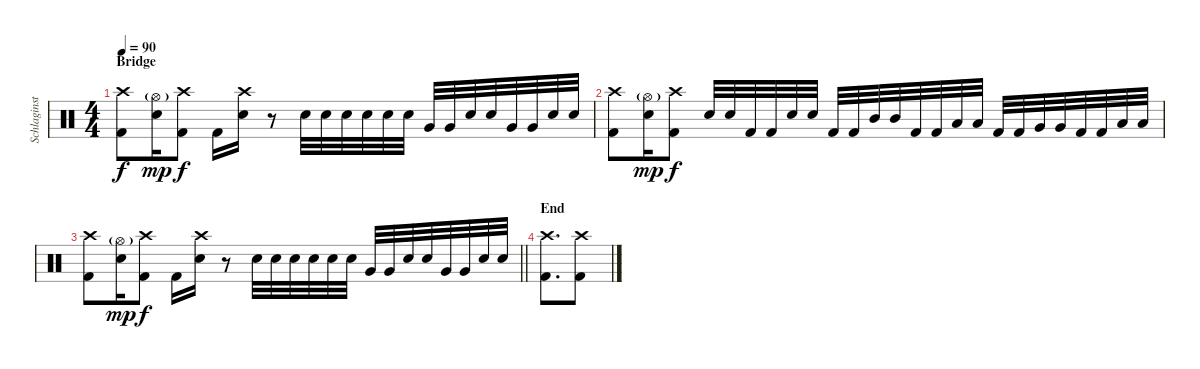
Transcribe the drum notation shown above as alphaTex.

\track ("Schlaginstrumente - Auswahl" "Schlaginst") {instrument percussion}
\staff {score}
\articulation defaults
\ts (4 4)
\section ("" "Bridge")
\tempo 90
\clef neutral
\ks c
("Crash high (hit)" "Kick (hit) 2").8{dy f} ("Hi-Hat (open)"{g} "Electric Snare (hit)").16{dy mp} ("Crash high (hit)" "Kick (hit) 2").8{dy f} "Kick (hit) 2".16 ("Crash high (hit)" "Electric Snare (hit)").16 r.8 "Electric Snare (hit)".32 "Electric Snare (hit)".32 "Electric Snare (hit)".32 "Electric Snare (hit)".32 "Electric Snare (hit)".32 "Electric Snare (hit)".32 "Very Low Tom (hit)".32 "Very Low Tom (hit)".32 "Electric Snare (hit)".32 "Electric Snare (hit)".32 "Very Low Tom (hit)".32 "Very Low Tom (hit)".32 "Electric Snare (hit)".32 "Electric Snare (hit)".32 |
("Crash high (hit)" "Kick (hit) 2").8 ("Hi-Hat (open)"{g} "Electric Snare (hit)").16{dy mp} ("Crash high (hit)" "Kick (hit) 2").8{dy f} "Electric Snare (hit)".32 "Electric Snare (hit)".32 "Kick (hit) 2".32 "Kick (hit) 2".32 "Electric Snare (hit)".32 "Electric Snare (hit)".32 "Kick (hit) 2".32 "Kick (hit) 2".32 "Mid Tom (hit)".32 "Mid Tom (hit)".32 "Kick (hit) 2".32 "Kick (hit) 2".32 "Low Tom (hit)".32 "Low Tom (hit)".32 "Kick (hit) 2".32 "Kick (hit) 2".32 "Very Low Tom (hit)".32 "Very Low Tom (hit)".32 "Kick (hit) 2".32 "Kick (hit) 2".32 "Low Floor Tom (hit)".32 "Low Floor Tom (hit)".32 |
\barLineRight lightlight
("Crash high (hit)" "Kick (hit) 2").8 ("Hi-Hat (open)"{g} "Electric Snare (hit)").16{dy mp} ("Crash high (hit)" "Kick (hit) 2").8{dy f} "Kick (hit) 2".16 ("Crash high (hit)" "Electric Snare (hit)").16 r.8 "Electric Snare (hit)".32 "Electric Snare (hit)".32 "Electric Snare (hit)".32 "Electric Snare (hit)".32 "Electric Snare (hit)".32 "Electric Snare (hit)".32 "Very Low Tom (hit)".32 "Very Low Tom (hit)".32 "Electric Snare (hit)".32 "Electric Snare (hit)".32 "Very Low Tom (hit)".32 "Very Low Tom (hit)".32 "Electric Snare (hit)".32 "Electric Snare (hit)".32 |
\section ("" "End")
("Crash high (hit)" "Kick (hit) 2").8{d} ("Crash high (hit)" "Kick (hit) 2").8
